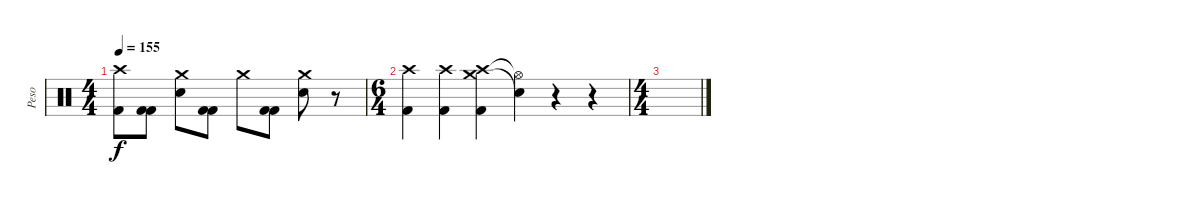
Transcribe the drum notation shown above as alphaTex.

\track ("Peso" "Peso") {instrument percussion}
\staff {score}
\articulation defaults
\ts (4 4)
\tempo 155
\clef neutral
\ks c
("Crash high (hit)" "Kick (hit) 2").8{dy f} ("Kick (hit) 2" "Kick (hit) 2").8 ("Crash medium (hit)" "Snare (hit) 2").8 ("Kick (hit) 2" "Kick (hit) 2").8 "Crash medium (hit)".8 ("Kick (hit) 2" "Kick (hit) 2").8 ("Crash medium (hit)" "Snare (hit) 2").8 r.8 |
\ts (6 4)
("Crash high (hit)" "Kick (hit) 2").4 ("Crash high (hit)" "Kick (hit) 2").4 ("Crash high (hit)" "Crash medium (hit)" "Kick (hit) 2").4 ("Hi-Hat (open)"{t} "Snare (hit)"{t}).4 r.4 r.4 |
\ts (4 4)
